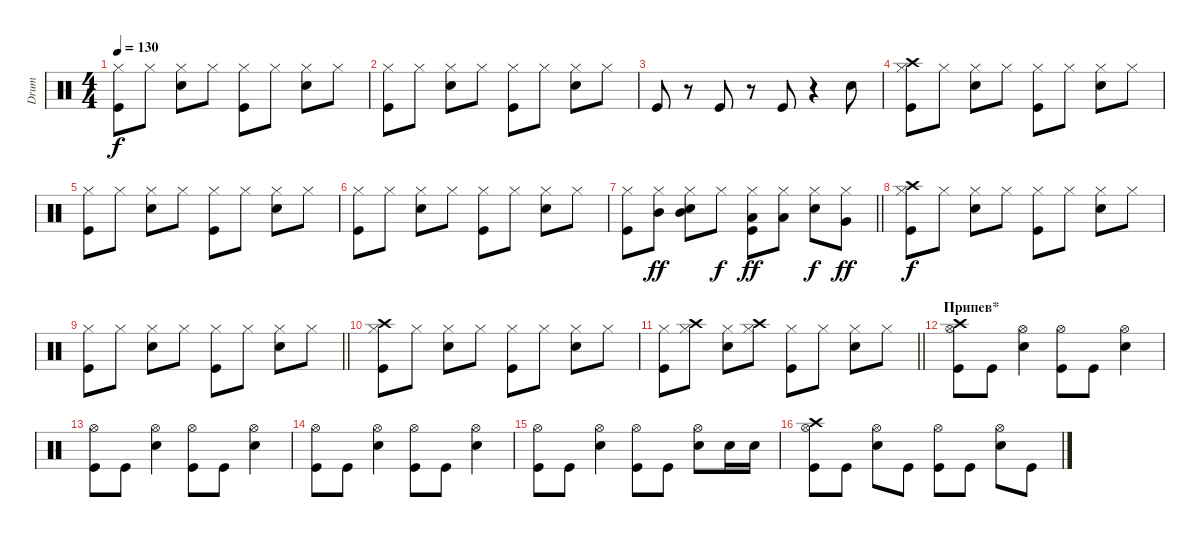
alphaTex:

\track ("Drum" "Drum") {instrument percussion}
\staff {score}
\articulation defaults
\ts (4 4)
\tempo 130
\clef neutral
\ks c
("Kick (hit)" "Hi-Hat (closed)").8{dy f} "Hi-Hat (closed)".8 ("Snare (hit) 2" "Hi-Hat (closed)").8 "Hi-Hat (closed)".8 ("Kick (hit)" "Hi-Hat (closed)").8 "Hi-Hat (closed)".8 ("Snare (hit) 2" "Hi-Hat (closed)").8 "Hi-Hat (closed)".8 |
("Kick (hit)" "Hi-Hat (closed)").8 "Hi-Hat (closed)".8 ("Snare (hit) 2" "Hi-Hat (closed)").8 "Hi-Hat (closed)".8 ("Kick (hit)" "Hi-Hat (closed)").8 "Hi-Hat (closed)".8 ("Snare (hit) 2" "Hi-Hat (closed)").8 "Hi-Hat (closed)".8 |
"Kick (hit)".8 r.8 "Kick (hit)".8 r.8 "Kick (hit)".8 r.4 "Snare (hit) 2".8 |
("Kick (hit)" "Hi-Hat (closed)" "Crash high (hit)").8 "Hi-Hat (closed)".8 ("Snare (hit) 2" "Hi-Hat (closed)").8 "Hi-Hat (closed)".8 ("Kick (hit)" "Hi-Hat (closed)").8 "Hi-Hat (closed)".8 ("Snare (hit) 2" "Hi-Hat (closed)").8 "Hi-Hat (closed)".8 |
("Kick (hit)" "Hi-Hat (closed)").8 "Hi-Hat (closed)".8 ("Snare (hit) 2" "Hi-Hat (closed)").8 "Hi-Hat (closed)".8 ("Kick (hit)" "Hi-Hat (closed)").8 "Hi-Hat (closed)".8 ("Snare (hit) 2" "Hi-Hat (closed)").8 "Hi-Hat (closed)".8 |
("Kick (hit)" "Hi-Hat (closed)").8 "Hi-Hat (closed)".8 ("Snare (hit) 2" "Hi-Hat (closed)").8 "Hi-Hat (closed)".8 ("Kick (hit)" "Hi-Hat (closed)").8 "Hi-Hat (closed)".8 ("Snare (hit) 2" "Hi-Hat (closed)").8 "Hi-Hat (closed)".8 |
\barLineRight lightlight
("Kick (hit)" "Hi-Hat (closed)").8 ("Hi-Hat (closed)" "Mid Tom (hit)").8{dy ff} ("Snare (hit) 2" "Hi-Hat (closed)" "Mid Tom (hit)").8 "Hi-Hat (closed)".8{dy f} ("Kick (hit)" "Hi-Hat (closed)" "Low Tom (hit)").8{dy ff} ("Hi-Hat (closed)" "Low Tom (hit)").8 ("Snare (hit) 2" "Hi-Hat (closed)").8{dy f} ("Hi-Hat (closed)" "Very Low Tom (hit)").8{dy ff} |
("Kick (hit)" "Hi-Hat (closed)" "Crash high (hit)").8{dy f} "Hi-Hat (closed)".8 ("Snare (hit) 2" "Hi-Hat (closed)").8 "Hi-Hat (closed)".8 ("Kick (hit)" "Hi-Hat (closed)").8 "Hi-Hat (closed)".8 ("Snare (hit) 2" "Hi-Hat (closed)").8 "Hi-Hat (closed)".8 |
\barLineRight lightlight
("Kick (hit)" "Hi-Hat (closed)").8 "Hi-Hat (closed)".8 ("Snare (hit) 2" "Hi-Hat (closed)").8 "Hi-Hat (closed)".8 ("Kick (hit)" "Hi-Hat (closed)").8 "Hi-Hat (closed)".8 ("Snare (hit) 2" "Hi-Hat (closed)").8 "Hi-Hat (closed)".8 |
("Kick (hit)" "Hi-Hat (closed)" "Crash high (hit)").8 "Hi-Hat (closed)".8 ("Snare (hit) 2" "Hi-Hat (closed)").8 "Hi-Hat (closed)".8 ("Kick (hit)" "Hi-Hat (closed)").8 "Hi-Hat (closed)".8 ("Snare (hit) 2" "Hi-Hat (closed)").8 "Hi-Hat (closed)".8 |
\barLineRight lightlight
("Kick (hit)" "Hi-Hat (closed)").8 ("Hi-Hat (closed)" "Crash high (hit)").8 ("Snare (hit) 2" "Hi-Hat (closed)").8 ("Hi-Hat (closed)" "Crash high (hit)").8 ("Kick (hit)" "Hi-Hat (closed)").8 "Hi-Hat (closed)".8 ("Snare (hit) 2" "Hi-Hat (closed)").8 "Hi-Hat (closed)".8 |
\section ("" "Припев*")
("Kick (hit)" "Hi-Hat (open)" "Crash high (hit)").8 "Kick (hit)".8 ("Snare (hit) 2" "Hi-Hat (open)").4 ("Kick (hit)" "Hi-Hat (open)").8 "Kick (hit)".8 ("Snare (hit) 2" "Hi-Hat (open)").4 |
("Kick (hit)" "Hi-Hat (open)").8 "Kick (hit)".8 ("Snare (hit) 2" "Hi-Hat (open)").4 ("Kick (hit)" "Hi-Hat (open)").8 "Kick (hit)".8 ("Snare (hit) 2" "Hi-Hat (open)").4 |
("Kick (hit)" "Hi-Hat (open)").8 "Kick (hit)".8 ("Snare (hit) 2" "Hi-Hat (open)").4 ("Kick (hit)" "Hi-Hat (open)").8 "Kick (hit)".8 ("Snare (hit) 2" "Hi-Hat (open)").4 |
("Kick (hit)" "Hi-Hat (open)").8 "Kick (hit)".8 ("Snare (hit) 2" "Hi-Hat (open)").4 ("Kick (hit)" "Hi-Hat (open)").8 "Kick (hit)".8 ("Snare (hit) 2" "Hi-Hat (open)").8 "Snare (hit) 2".16 "Snare (hit) 2".16 |
("Kick (hit)" "Hi-Hat (open)" "Crash high (hit)").8 "Kick (hit)".8 ("Snare (hit) 2" "Hi-Hat (open)").8 "Kick (hit)".8 ("Kick (hit)" "Hi-Hat (open)").8 "Kick (hit)".8 ("Snare (hit) 2" "Hi-Hat (open)").8 "Kick (hit)".8
